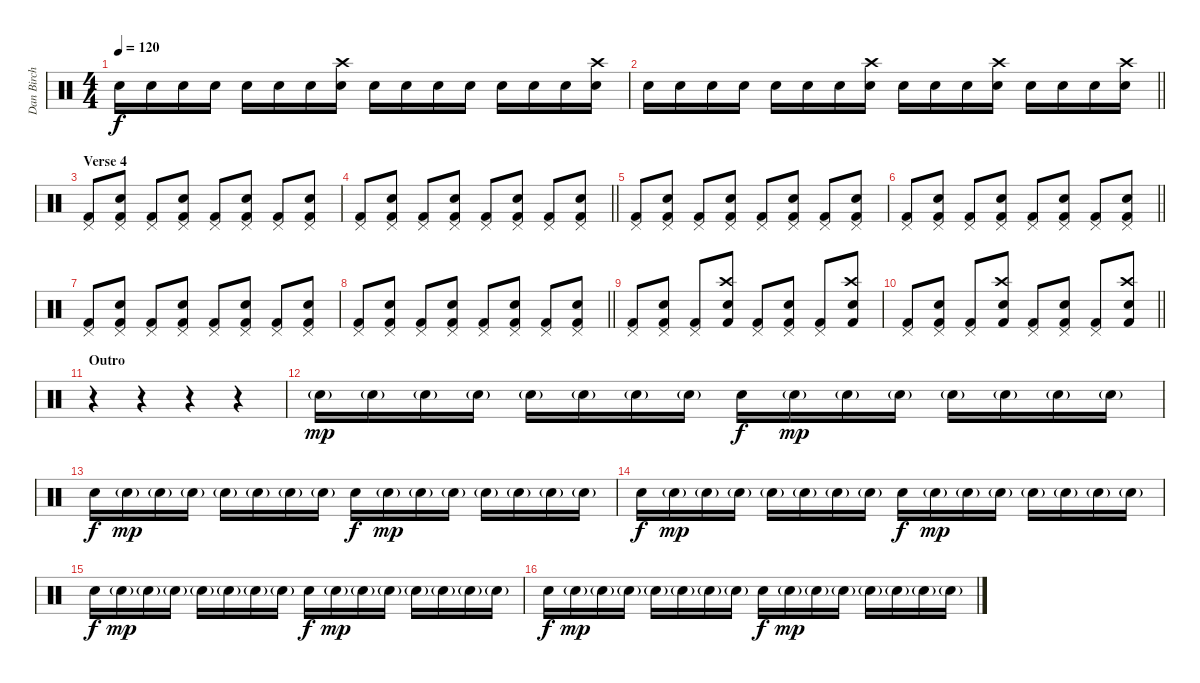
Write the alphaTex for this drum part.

\track ("Dan Birch" "Dan Birch") {instrument percussion}
\staff {score}
\articulation defaults
\ts (4 4)
\tempo 120
\clef neutral
\ks c "Snare (hit) 2".16{dy f} "Snare (hit) 2".16 "Snare (hit) 2".16 "Snare (hit) 2".16 "Snare (hit) 2".16 "Snare (hit) 2".16 "Snare (hit) 2".16
("Crash high (hit)" "Snare (hit) 2").16 "Snare (hit) 2".16 "Snare (hit) 2".16 "Snare (hit) 2".16 "Snare (hit) 2".16 "Snare (hit) 2".16 "Snare (hit) 2".16 "Snare (hit) 2".16 ("Crash high (hit)" "Snare (hit) 2").16 |
\barLineRight lightlight "Snare (hit) 2".16 "Snare (hit) 2".16 "Snare (hit) 2".16 "Snare (hit) 2".16 "Snare (hit) 2".16 "Snare (hit) 2".16 "Snare (hit) 2".16
("Crash high (hit)" "Snare (hit) 2").16 "Snare (hit) 2".16 "Snare (hit) 2".16 "Snare (hit) 2".16 ("Crash high (hit)" "Snare (hit) 2").16 "Snare (hit) 2".16 "Snare (hit) 2".16 "Snare (hit) 2".16 ("Crash high (hit)" "Snare (hit) 2").16 |
\section ("" "Verse 4")
("Pedal Hi-Hat (hit)" "Kick (hit) 2").8 ("Pedal Hi-Hat (hit)" "Snare (hit) 2" "Kick (hit) 2").8 ("Pedal Hi-Hat (hit)" "Kick (hit) 2").8 ("Pedal Hi-Hat (hit)" "Snare (hit) 2" "Kick (hit) 2").8 ("Pedal Hi-Hat (hit)" "Kick (hit) 2").8 ("Pedal Hi-Hat (hit)" "Snare (hit) 2" "Kick (hit) 2").8 ("Pedal Hi-Hat (hit)" "Kick (hit) 2").8 ("Pedal Hi-Hat (hit)" "Snare (hit) 2" "Kick (hit) 2").8 |
\barLineRight lightlight
("Pedal Hi-Hat (hit)" "Kick (hit) 2").8 ("Pedal Hi-Hat (hit)" "Snare (hit) 2" "Kick (hit) 2").8 ("Pedal Hi-Hat (hit)" "Kick (hit) 2").8 ("Pedal Hi-Hat (hit)" "Snare (hit) 2" "Kick (hit) 2").8 ("Pedal Hi-Hat (hit)" "Kick (hit) 2").8 ("Pedal Hi-Hat (hit)" "Snare (hit) 2" "Kick (hit) 2").8 ("Pedal Hi-Hat (hit)" "Kick (hit) 2").8 ("Pedal Hi-Hat (hit)" "Snare (hit) 2" "Kick (hit) 2").8 |
("Pedal Hi-Hat (hit)" "Kick (hit) 2").8 ("Pedal Hi-Hat (hit)" "Snare (hit) 2" "Kick (hit) 2").8 ("Pedal Hi-Hat (hit)" "Kick (hit) 2").8 ("Pedal Hi-Hat (hit)" "Snare (hit) 2" "Kick (hit) 2").8 ("Pedal Hi-Hat (hit)" "Kick (hit) 2").8 ("Pedal Hi-Hat (hit)" "Snare (hit) 2" "Kick (hit) 2").8 ("Pedal Hi-Hat (hit)" "Kick (hit) 2").8 ("Pedal Hi-Hat (hit)" "Snare (hit) 2" "Kick (hit) 2").8 |
\barLineRight lightlight
("Pedal Hi-Hat (hit)" "Kick (hit) 2").8 ("Pedal Hi-Hat (hit)" "Snare (hit) 2" "Kick (hit) 2").8 ("Pedal Hi-Hat (hit)" "Kick (hit) 2").8 ("Pedal Hi-Hat (hit)" "Snare (hit) 2" "Kick (hit) 2").8 ("Pedal Hi-Hat (hit)" "Kick (hit) 2").8 ("Pedal Hi-Hat (hit)" "Snare (hit) 2" "Kick (hit) 2").8 ("Pedal Hi-Hat (hit)" "Kick (hit) 2").8 ("Pedal Hi-Hat (hit)" "Snare (hit) 2" "Kick (hit) 2").8 |
("Pedal Hi-Hat (hit)" "Kick (hit) 2").8 ("Pedal Hi-Hat (hit)" "Snare (hit) 2" "Kick (hit) 2").8 ("Pedal Hi-Hat (hit)" "Kick (hit) 2").8 ("Pedal Hi-Hat (hit)" "Snare (hit) 2" "Kick (hit) 2").8 ("Pedal Hi-Hat (hit)" "Kick (hit) 2").8 ("Pedal Hi-Hat (hit)" "Snare (hit) 2" "Kick (hit) 2").8 ("Pedal Hi-Hat (hit)" "Kick (hit) 2").8 ("Pedal Hi-Hat (hit)" "Snare (hit) 2" "Kick (hit) 2").8 |
\barLineRight lightlight
("Pedal Hi-Hat (hit)" "Kick (hit) 2").8 ("Pedal Hi-Hat (hit)" "Snare (hit) 2" "Kick (hit) 2").8 ("Pedal Hi-Hat (hit)" "Kick (hit) 2").8 ("Pedal Hi-Hat (hit)" "Snare (hit) 2" "Kick (hit) 2").8 ("Pedal Hi-Hat (hit)" "Kick (hit) 2").8 ("Pedal Hi-Hat (hit)" "Snare (hit) 2" "Kick (hit) 2").8 ("Pedal Hi-Hat (hit)" "Kick (hit) 2").8 ("Pedal Hi-Hat (hit)" "Snare (hit) 2" "Kick (hit) 2").8 |
("Pedal Hi-Hat (hit)" "Kick (hit) 2").8 ("Pedal Hi-Hat (hit)" "Snare (hit) 2" "Kick (hit) 2").8 ("Pedal Hi-Hat (hit)" "Kick (hit) 2").8 ("Crash high (hit)" "Snare (hit) 2" "Kick (hit) 2").8 ("Pedal Hi-Hat (hit)" "Kick (hit) 2").8 ("Pedal Hi-Hat (hit)" "Snare (hit) 2" "Kick (hit) 2").8 ("Pedal Hi-Hat (hit)" "Kick (hit) 2").8 ("Crash high (hit)" "Snare (hit) 2" "Kick (hit) 2").8 |
\barLineRight lightlight
("Pedal Hi-Hat (hit)" "Kick (hit) 2").8 ("Pedal Hi-Hat (hit)" "Snare (hit) 2" "Kick (hit) 2").8 ("Pedal Hi-Hat (hit)" "Kick (hit) 2").8 ("Crash high (hit)" "Snare (hit) 2" "Kick (hit) 2").8 ("Pedal Hi-Hat (hit)" "Kick (hit) 2").8 ("Pedal Hi-Hat (hit)" "Snare (hit) 2" "Kick (hit) 2").8 ("Pedal Hi-Hat (hit)" "Kick (hit) 2").8 ("Crash high (hit)" "Snare (hit) 2" "Kick (hit) 2").8 |
\section ("" "Outro")
r.4 r.4 r.4 r.4 |
"Snare (hit) 2"{g}.16{dy mp} "Snare (hit) 2"{g}.16 "Snare (hit) 2"{g}.16 "Snare (hit) 2"{g}.16 "Snare (hit) 2"{g}.16 "Snare (hit) 2"{g}.16 "Snare (hit) 2"{g}.16 "Snare (hit) 2"{g}.16 "Snare (hit) 2".16{dy f} "Snare (hit) 2"{g}.16{dy mp} "Snare (hit) 2"{g}.16 "Snare (hit) 2"{g}.16 "Snare (hit) 2"{g}.16 "Snare (hit) 2"{g}.16 "Snare (hit) 2"{g}.16 "Snare (hit) 2"{g}.16 |
"Snare (hit) 2".16{dy f} "Snare (hit) 2"{g}.16{dy mp} "Snare (hit) 2"{g}.16 "Snare (hit) 2"{g}.16 "Snare (hit) 2"{g}.16 "Snare (hit) 2"{g}.16 "Snare (hit) 2"{g}.16 "Snare (hit) 2"{g}.16 "Snare (hit) 2".16{dy f} "Snare (hit) 2"{g}.16{dy mp} "Snare (hit) 2"{g}.16 "Snare (hit) 2"{g}.16 "Snare (hit) 2"{g}.16 "Snare (hit) 2"{g}.16 "Snare (hit) 2"{g}.16 "Snare (hit) 2"{g}.16 |
"Snare (hit) 2".16{dy f} "Snare (hit) 2"{g}.16{dy mp} "Snare (hit) 2"{g}.16 "Snare (hit) 2"{g}.16 "Snare (hit) 2"{g}.16 "Snare (hit) 2"{g}.16 "Snare (hit) 2"{g}.16 "Snare (hit) 2"{g}.16 "Snare (hit) 2".16{dy f} "Snare (hit) 2"{g}.16{dy mp} "Snare (hit) 2"{g}.16 "Snare (hit) 2"{g}.16 "Snare (hit) 2"{g}.16 "Snare (hit) 2"{g}.16 "Snare (hit) 2"{g}.16 "Snare (hit) 2"{g}.16 |
"Snare (hit) 2".16{dy f} "Snare (hit) 2"{g}.16{dy mp} "Snare (hit) 2"{g}.16 "Snare (hit) 2"{g}.16 "Snare (hit) 2"{g}.16 "Snare (hit) 2"{g}.16 "Snare (hit) 2"{g}.16 "Snare (hit) 2"{g}.16 "Snare (hit) 2".16{dy f} "Snare (hit) 2"{g}.16{dy mp} "Snare (hit) 2"{g}.16 "Snare (hit) 2"{g}.16 "Snare (hit) 2"{g}.16 "Snare (hit) 2"{g}.16 "Snare (hit) 2"{g}.16 "Snare (hit) 2"{g}.16 |
"Snare (hit) 2".16{dy f} "Snare (hit) 2"{g}.16{dy mp} "Snare (hit) 2"{g}.16 "Snare (hit) 2"{g}.16 "Snare (hit) 2"{g}.16 "Snare (hit) 2"{g}.16 "Snare (hit) 2"{g}.16 "Snare (hit) 2"{g}.16 "Snare (hit) 2".16{dy f} "Snare (hit) 2"{g}.16{dy mp} "Snare (hit) 2"{g}.16 "Snare (hit) 2"{g}.16 "Snare (hit) 2"{g}.16 "Snare (hit) 2"{g}.16 "Snare (hit) 2"{g}.16 "Snare (hit) 2"{g}.16
